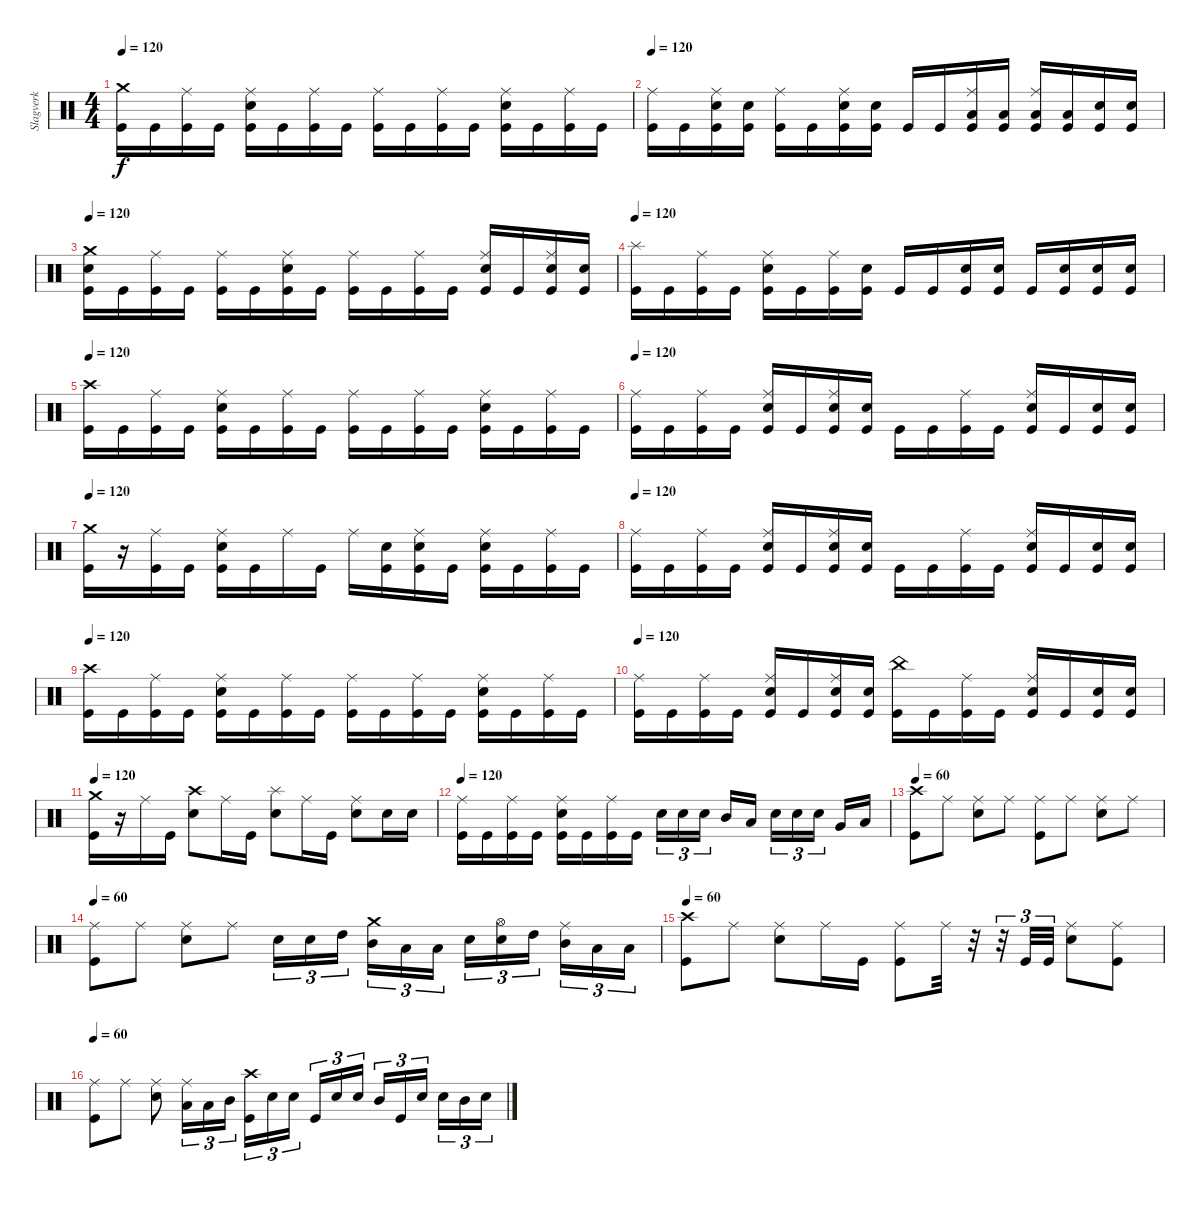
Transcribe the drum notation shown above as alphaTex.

\track ("Slagverk" "Slagverk") {instrument percussion}
\staff {score}
\articulation defaults
\ts (4 4)
\tempo 120
\clef neutral
\ks c
("Crash medium (hit)" "Kick (hit)").16{dy f} "Kick (hit)".16 ("Ride (middle)" "Kick (hit)").16 "Kick (hit)".16 ("Ride (middle)" "Electric Snare (hit)" "Kick (hit)").16 "Kick (hit)".16 ("Ride (middle)" "Kick (hit)").16 "Kick (hit)".16 ("Ride (middle)" "Kick (hit)").16 "Kick (hit)".16 ("Ride (middle)" "Kick (hit)").16 "Kick (hit)".16 ("Ride (middle)" "Electric Snare (hit)" "Kick (hit)").16 "Kick (hit)".16 ("Ride (middle)" "Kick (hit)").16 "Kick (hit)".16 |
\tempo 120
("Ride (middle)" "Kick (hit)").16 "Kick (hit)".16 ("Ride (middle)" "Electric Snare (hit)" "Kick (hit)").16 ("Electric Snare (hit)" "Kick (hit)").16 ("Ride (middle)" "Kick (hit)").16 "Kick (hit)".16 ("Ride (middle)" "Electric Snare (hit)" "Kick (hit)").16 ("Electric Snare (hit)" "Kick (hit)").16 "Kick (hit)".16 "Kick (hit)".16 ("Ride (middle)" "Low Tom (hit)" "Kick (hit)").16 ("Low Tom (hit)" "Kick (hit)").16 ("Ride (middle)" "Low Floor Tom (hit)" "Kick (hit)").16 ("Low Floor Tom (hit)" "Kick (hit)").16 ("Electric Snare (hit)" "Kick (hit)").16 ("Electric Snare (hit)" "Kick (hit)").16 |
\tempo 120
("Crash medium (hit)" "Electric Snare (hit)" "Kick (hit)").16 "Kick (hit)".16 ("Ride (middle)" "Kick (hit)").16 "Kick (hit)".16 ("Ride (middle)" "Kick (hit)").16 "Kick (hit)".16 ("Ride (middle)" "Electric Snare (hit)" "Kick (hit)").16 "Kick (hit)".16 ("Ride (middle)" "Kick (hit)").16 "Kick (hit)".16 ("Ride (middle)" "Kick (hit)").16 "Kick (hit)".16 ("Ride (middle)" "Electric Snare (hit)" "Kick (hit)").16 "Kick (hit)".16 ("Ride (middle)" "Electric Snare (hit)" "Kick (hit)").16 ("Electric Snare (hit)" "Kick (hit)").16 |
\tempo 120
("Splash (hit)" "Kick (hit)").16 "Kick (hit)".16 ("Ride (middle)" "Kick (hit)").16 "Kick (hit)".16 ("Ride (middle)" "Electric Snare (hit)" "Kick (hit)").16 "Kick (hit)".16 ("Ride (middle)" "Kick (hit)").16 ("Electric Snare (hit)" "Kick (hit)").16 "Kick (hit)".16 "Kick (hit)".16 ("Electric Snare (hit)" "Kick (hit)").16 ("Electric Snare (hit)" "Kick (hit)").16 "Kick (hit)".16 ("Electric Snare (hit)" "Kick (hit)").16 ("Electric Snare (hit)" "Kick (hit)").16 ("Electric Snare (hit)" "Kick (hit)").16 |
\tempo 120
("Crash high (hit)" "Kick (hit)").16 "Kick (hit)".16 ("Ride (middle)" "Kick (hit)").16 "Kick (hit)".16 ("Ride (middle)" "Electric Snare (hit)" "Kick (hit)").16 "Kick (hit)".16 ("Ride (middle)" "Kick (hit)").16 "Kick (hit)".16 ("Ride (middle)" "Kick (hit)").16 "Kick (hit)".16 ("Ride (middle)" "Kick (hit)").16 "Kick (hit)".16 ("Ride (middle)" "Electric Snare (hit)" "Kick (hit)").16 "Kick (hit)".16 ("Ride (middle)" "Kick (hit)").16 "Kick (hit)".16 |
\tempo 120
("Ride (middle)" "Kick (hit)").16 "Kick (hit)".16 ("Ride (middle)" "Kick (hit)").16 "Kick (hit)".16 ("Ride (middle)" "Electric Snare (hit)" "Kick (hit)").16 "Kick (hit)".16 ("Ride (middle)" "Electric Snare (hit)" "Kick (hit)").16 ("Electric Snare (hit)" "Kick (hit)").16 "Kick (hit)".16 "Kick (hit)".16 ("Ride (middle)" "Kick (hit)").16 "Kick (hit)".16 ("Ride (middle)" "Electric Snare (hit)" "Kick (hit)").16 "Kick (hit)".16 ("Electric Snare (hit)" "Kick (hit)").16 ("Electric Snare (hit)" "Kick (hit)").16 |
\tempo 120
("Crash medium (hit)" "Kick (hit)").16 r.16 ("Ride (middle)" "Kick (hit)").16 "Kick (hit)".16 ("Ride (middle)" "Electric Snare (hit)" "Kick (hit)").16 "Kick (hit)".16 "Ride (middle)".16 "Kick (hit)".16 "Ride (middle)".16 ("Electric Snare (hit)" "Kick (hit)").16 ("Ride (middle)" "Electric Snare (hit)" "Kick (hit)").16 "Kick (hit)".16 ("Ride (middle)" "Electric Snare (hit)" "Kick (hit)").16 "Kick (hit)".16 ("Ride (middle)" "Kick (hit)").16 "Kick (hit)".16 |
\tempo 120
("Ride (middle)" "Kick (hit)").16 "Kick (hit)".16 ("Ride (middle)" "Kick (hit)").16 "Kick (hit)".16 ("Ride (middle)" "Electric Snare (hit)" "Kick (hit)").16 "Kick (hit)".16 ("Ride (middle)" "Electric Snare (hit)" "Kick (hit)").16 ("Electric Snare (hit)" "Kick (hit)").16 "Kick (hit)".16 "Kick (hit)".16 ("Ride (middle)" "Kick (hit)").16 "Kick (hit)".16 ("Ride (middle)" "Electric Snare (hit)" "Kick (hit)").16 "Kick (hit)".16 ("Electric Snare (hit)" "Kick (hit)").16 ("Electric Snare (hit)" "Kick (hit)").16 |
\tempo 120
("Crash high (hit)" "Kick (hit)").16 "Kick (hit)".16 ("Ride (middle)" "Kick (hit)").16 "Kick (hit)".16 ("Ride (middle)" "Electric Snare (hit)" "Kick (hit)").16 "Kick (hit)".16 ("Ride (middle)" "Kick (hit)").16 "Kick (hit)".16 ("Ride (middle)" "Kick (hit)").16 "Kick (hit)".16 ("Ride (middle)" "Kick (hit)").16 "Kick (hit)".16 ("Ride (middle)" "Electric Snare (hit)" "Kick (hit)").16 "Kick (hit)".16 ("Ride (middle)" "Kick (hit)").16 "Kick (hit)".16 |
\tempo 120
("Ride (middle)" "Kick (hit)").16 "Kick (hit)".16 ("Ride (middle)" "Kick (hit)").16 "Kick (hit)".16 ("Ride (middle)" "Electric Snare (hit)" "Kick (hit)").16 "Kick (hit)".16 ("Ride (middle)" "Electric Snare (hit)" "Kick (hit)").16 ("Electric Snare (hit)" "Kick (hit)").16 ("China (hit)" "Kick (hit)").16 "Kick (hit)".16 ("Ride (middle)" "Kick (hit)").16 "Kick (hit)".16 ("Ride (middle)" "Electric Snare (hit)" "Kick (hit)").16 "Kick (hit)".16 ("Electric Snare (hit)" "Kick (hit)").16 ("Electric Snare (hit)" "Kick (hit)").16 |
\tempo 120
("Crash medium (hit)" "Kick (hit)").16 r.16 "Ride (middle)".16 "Kick (hit)".16 ("Crash high (hit)" "Electric Snare (hit)").8 "Ride (middle)".16 "Kick (hit)".16 ("Splash (hit)" "Electric Snare (hit)").8 "Ride (middle)".16 "Kick (hit)".16 ("Ride (middle)" "Electric Snare (hit)").8 "Electric Snare (hit)".16 "Electric Snare (hit)".16 |
\tempo 120
("Ride (middle)" "Kick (hit)").16 "Kick (hit)".16 ("Ride (middle)" "Kick (hit)").16 "Kick (hit)".16 ("Ride (middle)" "Electric Snare (hit)" "Kick (hit)").16 "Kick (hit)".16 ("Ride (middle)" "Kick (hit)").16 "Kick (hit)".16 "Electric Snare (hit)".16{tu (3 2)} "Electric Snare (hit)".16{tu (3 2)} "Electric Snare (hit)".16{tu (3 2)} "Mid Tom (hit)".16 "Low Tom (hit)".16 "Electric Snare (hit)".16{tu (3 2)} "Electric Snare (hit)".16{tu (3 2)} "Electric Snare (hit)".16{tu (3 2)} "Very Low Tom (hit)".16 "Low Floor Tom (hit)".16 |
\tempo 60
("Crash high (hit)" "Kick (hit)").8 "Ride (middle)".8 ("Ride (middle)" "Electric Snare (hit)").8 "Ride (middle)".8 ("Ride (middle)" "Kick (hit)").8 "Ride (middle)".8 ("Ride (middle)" "Electric Snare (hit)").8 "Ride (middle)".8 |
\tempo 60
("Ride (middle)" "Kick (hit)").8 "Ride (middle)".8 ("Ride (middle)" "Electric Snare (hit)").8 "Ride (middle)".8 "Electric Snare (hit)".16{tu (3 2)} "Electric Snare (hit)".16{tu (3 2)} "High Tom (hit)".16{tu (3 2)} ("Crash medium (hit)" "Mid Tom (hit)").16{tu (3 2)} "Low Floor Tom (hit)".16{tu (3 2)} "Low Tom (hit)".16{tu (3 2)} "Electric Snare (hit)".16{tu (3 2)} ("Hi-Hat (open)" "Electric Snare (hit)").16{tu (3 2)} "High Tom (hit)".16{tu (3 2)} ("Ride (middle)" "Mid Tom (hit)").16{tu (3 2)} "Low Tom (hit)".16{tu (3 2)} "Low Floor Tom (hit)".16{tu (3 2)} |
\tempo 60
("Crash high (hit)" "Kick (hit)").8 "Ride (middle)".8 ("Ride (middle)" "Electric Snare (hit)").8 "Ride (middle)".16 "Kick (hit)".16 ("Ride (middle)" "Kick (hit)").8 "Ride (middle)".32 r.32 r.32{tu (3 2)} "Kick (hit)".32{tu (3 2)} "Kick (hit)".32{tu (3 2)} ("Ride (middle)" "Electric Snare (hit)").8 ("Ride (middle)" "Kick (hit)").8 |
\tempo 60
("Ride (middle)" "Kick (hit)").8 "Ride (middle)".8 ("Ride (middle)" "Electric Snare (hit)").8 ("Ride (middle)" "Low Tom (hit)").16{tu (3 2)} "Low Tom (hit)".16{tu (3 2)} "Mid Tom (hit)".16{tu (3 2)} ("Crash high (hit)" "Kick (hit)").16{tu (3 2)} "Electric Snare (hit)".16{tu (3 2)} "Electric Snare (hit)".16{tu (3 2)} "Kick (hit)".16{tu (3 2)} "Electric Snare (hit)".16{tu (3 2)} "Electric Snare (hit)".16{tu (3 2)} "Mid Tom (hit)".16{tu (3 2)} "Kick (hit)".16{tu (3 2)} "Electric Snare (hit)".16{tu (3 2)} "Electric Snare (hit)".16{tu (3 2)} "Mid Tom (hit)".16{tu (3 2)} "Electric Snare (hit)".16{tu (3 2)}
